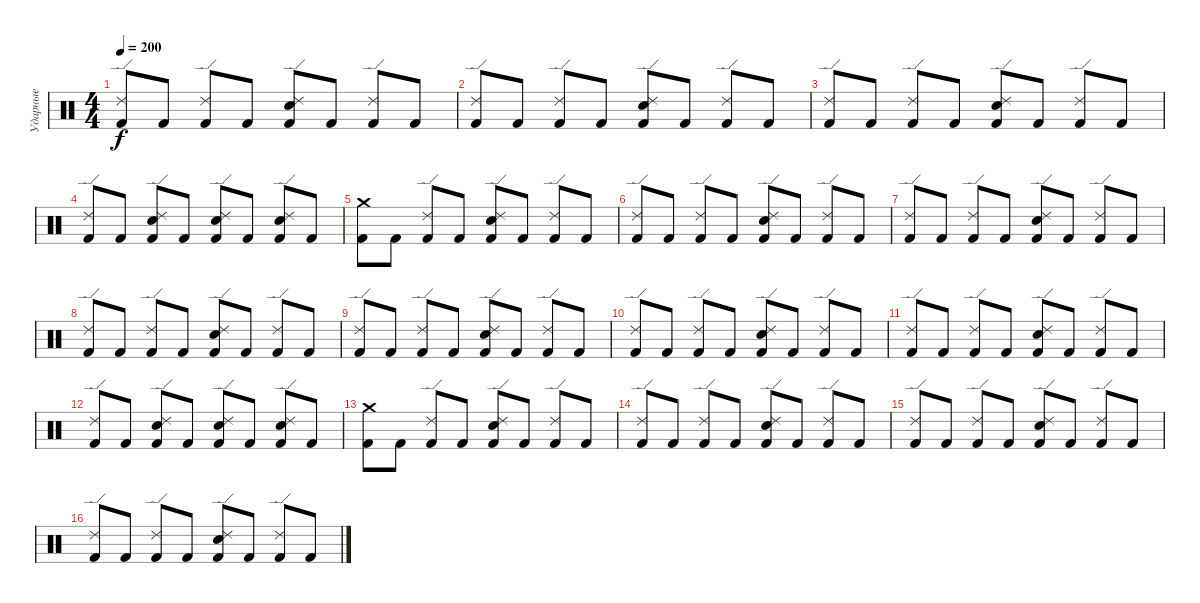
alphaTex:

\track ("Ударные" "Ударные") {instrument percussion}
\staff {score}
\articulation defaults
\ts (4 4)
\tempo 200
\clef neutral
\ks c
("Ride (edge) 2" "Kick (hit) 2").8{dy f} "Kick (hit) 2".8 ("Ride (edge) 2" "Kick (hit) 2").8 "Kick (hit) 2".8 ("Ride (edge) 2" "Snare (hit) 2" "Kick (hit) 2").8 "Kick (hit) 2".8 ("Ride (edge) 2" "Kick (hit) 2").8 "Kick (hit) 2".8 |
("Ride (edge) 2" "Kick (hit) 2").8 "Kick (hit) 2".8 ("Ride (edge) 2" "Kick (hit) 2").8 "Kick (hit) 2".8 ("Ride (edge) 2" "Snare (hit) 2" "Kick (hit) 2").8 "Kick (hit) 2".8 ("Ride (edge) 2" "Kick (hit) 2").8 "Kick (hit) 2".8 |
("Ride (edge) 2" "Kick (hit) 2").8 "Kick (hit) 2".8 ("Ride (edge) 2" "Kick (hit) 2").8 "Kick (hit) 2".8 ("Ride (edge) 2" "Snare (hit) 2" "Kick (hit) 2").8 "Kick (hit) 2".8 ("Ride (edge) 2" "Kick (hit) 2").8 "Kick (hit) 2".8 |
("Ride (edge) 2" "Kick (hit) 2").8 "Kick (hit) 2".8 ("Ride (edge) 2" "Snare (hit) 2" "Kick (hit) 2").8 "Kick (hit) 2".8 ("Ride (edge) 2" "Snare (hit) 2" "Kick (hit) 2").8 "Kick (hit) 2".8 ("Ride (edge) 2" "Snare (hit) 2" "Kick (hit) 2").8 "Kick (hit) 2".8 |
("Crash medium (hit)" "Kick (hit) 2").8 "Kick (hit) 2".8 ("Ride (edge) 2" "Kick (hit) 2").8 "Kick (hit) 2".8 ("Ride (edge) 2" "Snare (hit) 2" "Kick (hit) 2").8 "Kick (hit) 2".8 ("Ride (edge) 2" "Kick (hit) 2").8 "Kick (hit) 2".8 |
("Ride (edge) 2" "Kick (hit) 2").8 "Kick (hit) 2".8 ("Ride (edge) 2" "Kick (hit) 2").8 "Kick (hit) 2".8 ("Ride (edge) 2" "Snare (hit) 2" "Kick (hit) 2").8 "Kick (hit) 2".8 ("Ride (edge) 2" "Kick (hit) 2").8 "Kick (hit) 2".8 |
("Ride (edge) 2" "Kick (hit) 2").8 "Kick (hit) 2".8 ("Ride (edge) 2" "Kick (hit) 2").8 "Kick (hit) 2".8 ("Ride (edge) 2" "Snare (hit) 2" "Kick (hit) 2").8 "Kick (hit) 2".8 ("Ride (edge) 2" "Kick (hit) 2").8 "Kick (hit) 2".8 |
("Ride (edge) 2" "Kick (hit) 2").8 "Kick (hit) 2".8 ("Ride (edge) 2" "Kick (hit) 2").8 "Kick (hit) 2".8 ("Ride (edge) 2" "Snare (hit) 2" "Kick (hit) 2").8 "Kick (hit) 2".8 ("Ride (edge) 2" "Kick (hit) 2").8 "Kick (hit) 2".8 |
("Ride (edge) 2" "Kick (hit) 2").8 "Kick (hit) 2".8 ("Ride (edge) 2" "Kick (hit) 2").8 "Kick (hit) 2".8 ("Ride (edge) 2" "Snare (hit) 2" "Kick (hit) 2").8 "Kick (hit) 2".8 ("Ride (edge) 2" "Kick (hit) 2").8 "Kick (hit) 2".8 |
("Ride (edge) 2" "Kick (hit) 2").8 "Kick (hit) 2".8 ("Ride (edge) 2" "Kick (hit) 2").8 "Kick (hit) 2".8 ("Ride (edge) 2" "Snare (hit) 2" "Kick (hit) 2").8 "Kick (hit) 2".8 ("Ride (edge) 2" "Kick (hit) 2").8 "Kick (hit) 2".8 |
("Ride (edge) 2" "Kick (hit) 2").8 "Kick (hit) 2".8 ("Ride (edge) 2" "Kick (hit) 2").8 "Kick (hit) 2".8 ("Ride (edge) 2" "Snare (hit) 2" "Kick (hit) 2").8 "Kick (hit) 2".8 ("Ride (edge) 2" "Kick (hit) 2").8 "Kick (hit) 2".8 |
("Ride (edge) 2" "Kick (hit) 2").8 "Kick (hit) 2".8 ("Ride (edge) 2" "Snare (hit) 2" "Kick (hit) 2").8 "Kick (hit) 2".8 ("Ride (edge) 2" "Snare (hit) 2" "Kick (hit) 2").8 "Kick (hit) 2".8 ("Ride (edge) 2" "Snare (hit) 2" "Kick (hit) 2").8 "Kick (hit) 2".8 |
("Crash medium (hit)" "Kick (hit) 2").8 "Kick (hit) 2".8 ("Ride (edge) 2" "Kick (hit) 2").8 "Kick (hit) 2".8 ("Ride (edge) 2" "Snare (hit) 2" "Kick (hit) 2").8 "Kick (hit) 2".8 ("Ride (edge) 2" "Kick (hit) 2").8 "Kick (hit) 2".8 |
("Ride (edge) 2" "Kick (hit) 2").8 "Kick (hit) 2".8 ("Ride (edge) 2" "Kick (hit) 2").8 "Kick (hit) 2".8 ("Ride (edge) 2" "Snare (hit) 2" "Kick (hit) 2").8 "Kick (hit) 2".8 ("Ride (edge) 2" "Kick (hit) 2").8 "Kick (hit) 2".8 |
("Ride (edge) 2" "Kick (hit) 2").8 "Kick (hit) 2".8 ("Ride (edge) 2" "Kick (hit) 2").8 "Kick (hit) 2".8 ("Ride (edge) 2" "Snare (hit) 2" "Kick (hit) 2").8 "Kick (hit) 2".8 ("Ride (edge) 2" "Kick (hit) 2").8 "Kick (hit) 2".8 |
("Ride (edge) 2" "Kick (hit) 2").8 "Kick (hit) 2".8 ("Ride (edge) 2" "Kick (hit) 2").8 "Kick (hit) 2".8 ("Ride (edge) 2" "Snare (hit) 2" "Kick (hit) 2").8 "Kick (hit) 2".8 ("Ride (edge) 2" "Kick (hit) 2").8 "Kick (hit) 2".8
